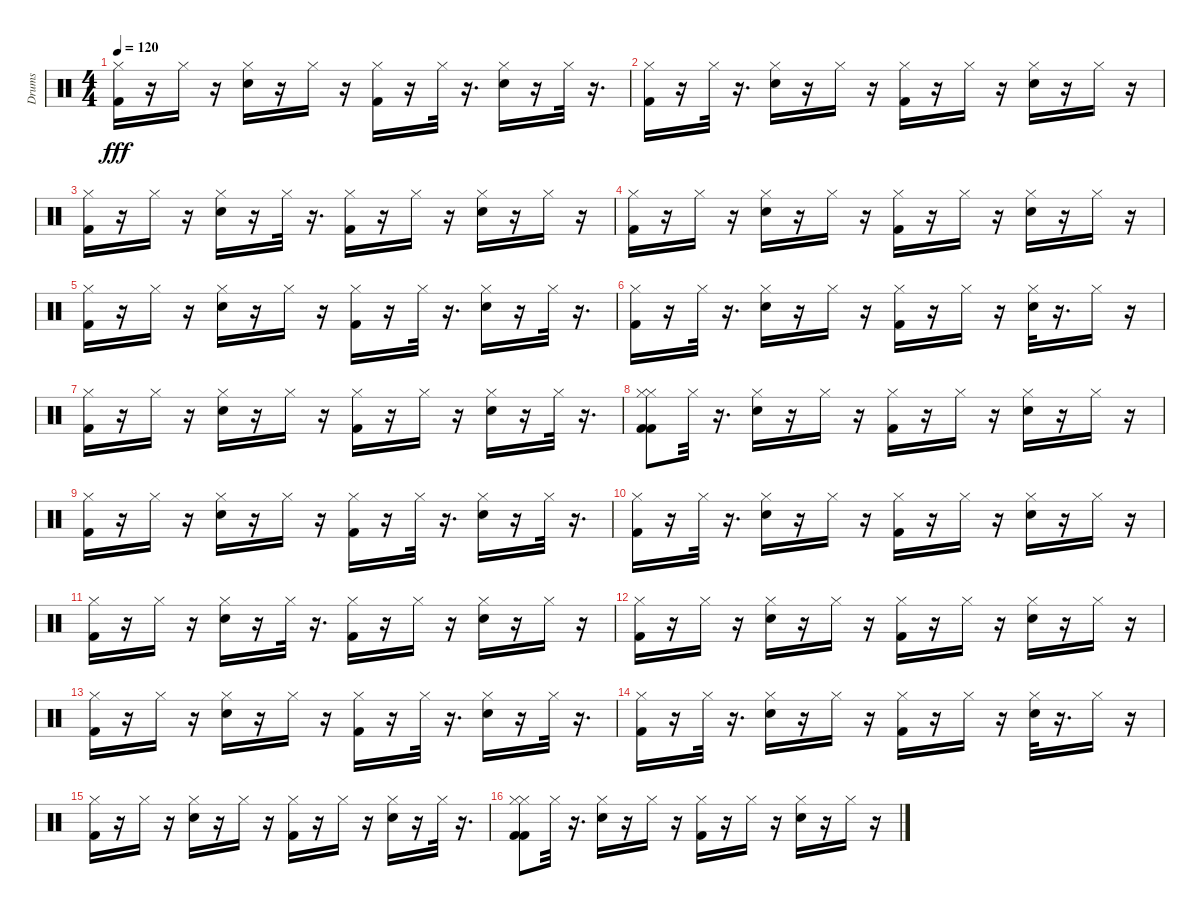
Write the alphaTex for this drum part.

\track ("Drums" "Drums") {instrument percussion}
\staff {score}
\articulation defaults
\ts (4 4)
\tempo 120
\clef neutral
\ks c
("Hi-Hat (closed)" "Kick (hit) 2").16{dy fff} r.16 "Hi-Hat (closed)".16 r.16 ("Snare (hit) 2" "Hi-Hat (closed)").16 r.16 "Hi-Hat (closed)".16 r.16 ("Hi-Hat (closed)" "Kick (hit) 2").16 r.16 "Hi-Hat (closed)".32 r.16{d} ("Snare (hit) 2" "Hi-Hat (closed)").16 r.16 "Hi-Hat (closed)".32 r.16{d} |
("Hi-Hat (closed)" "Kick (hit) 2").16 r.16 "Hi-Hat (closed)".32 r.16{d} ("Snare (hit) 2" "Hi-Hat (closed)").16 r.16 "Hi-Hat (closed)".16 r.16 ("Hi-Hat (closed)" "Kick (hit) 2").16 r.16 "Hi-Hat (closed)".16 r.16 ("Snare (hit) 2" "Hi-Hat (closed)").16 r.16 "Hi-Hat (closed)".16 r.16 |
("Hi-Hat (closed)" "Kick (hit) 2").16 r.16 "Hi-Hat (closed)".16 r.16 ("Snare (hit) 2" "Hi-Hat (closed)").16 r.16 "Hi-Hat (closed)".32 r.16{d} ("Hi-Hat (closed)" "Kick (hit) 2").16 r.16 "Hi-Hat (closed)".16 r.16 ("Snare (hit) 2" "Hi-Hat (closed)").16 r.16 "Hi-Hat (closed)".16 r.16 |
("Hi-Hat (closed)" "Kick (hit) 2").16 r.16 "Hi-Hat (closed)".16 r.16 ("Snare (hit) 2" "Hi-Hat (closed)").16 r.16 "Hi-Hat (closed)".16 r.16 ("Hi-Hat (closed)" "Kick (hit) 2").16 r.16 "Hi-Hat (closed)".16 r.16 ("Snare (hit) 2" "Hi-Hat (closed)").16 r.16 "Hi-Hat (closed)".16 r.16 |
("Hi-Hat (closed)" "Kick (hit) 2").16 r.16 "Hi-Hat (closed)".16 r.16 ("Snare (hit) 2" "Hi-Hat (closed)").16 r.16 "Hi-Hat (closed)".16 r.16 ("Hi-Hat (closed)" "Kick (hit) 2").16 r.16 "Hi-Hat (closed)".32 r.16{d} ("Snare (hit) 2" "Hi-Hat (closed)").16 r.16 "Hi-Hat (closed)".32 r.16{d} |
("Hi-Hat (closed)" "Kick (hit) 2").16 r.16 "Hi-Hat (closed)".32 r.16{d} ("Snare (hit) 2" "Hi-Hat (closed)").16 r.16 "Hi-Hat (closed)".16 r.16 ("Kick (hit) 2" "Hi-Hat (closed)").16 r.16 "Hi-Hat (closed)".16 r.16 ("Snare (hit) 2" "Hi-Hat (closed)").32 r.16{d} "Hi-Hat (closed)".16 r.16 |
("Hi-Hat (closed)" "Kick (hit) 2").16 r.16 "Hi-Hat (closed)".16 r.16 ("Snare (hit) 2" "Hi-Hat (closed)").16 r.16 "Hi-Hat (closed)".16 r.16 ("Hi-Hat (closed)" "Kick (hit) 2").16 r.16 "Hi-Hat (closed)".16 r.16 ("Snare (hit) 2" "Hi-Hat (closed)").16 r.16 "Hi-Hat (closed)".32 r.16{d} |
("Hi-Hat (closed)" "Kick (hit) 2" "Hi-Hat (closed)" "Kick (hit) 2").8 "Hi-Hat (closed)".32 r.16{d} ("Snare (hit) 2" "Hi-Hat (closed)").16 r.16 "Hi-Hat (closed)".16 r.16 ("Hi-Hat (closed)" "Kick (hit) 2").16 r.16 "Hi-Hat (closed)".16 r.16 ("Snare (hit) 2" "Hi-Hat (closed)").16 r.16 "Hi-Hat (closed)".16 r.16 |
("Hi-Hat (closed)" "Kick (hit) 2").16 r.16 "Hi-Hat (closed)".16 r.16 ("Snare (hit) 2" "Hi-Hat (closed)").16 r.16 "Hi-Hat (closed)".16 r.16 ("Hi-Hat (closed)" "Kick (hit) 2").16 r.16 "Hi-Hat (closed)".32{volume 9} r.16{d} ("Snare (hit) 2" "Hi-Hat (closed)").16 r.16 "Hi-Hat (closed)".32 r.16{d} |
("Hi-Hat (closed)" "Kick (hit) 2").16{volume 10} r.16 "Hi-Hat (closed)".32 r.16{d} ("Snare (hit) 2" "Hi-Hat (closed)").16{volume 10} r.16 "Hi-Hat (closed)".16{volume 10} r.16 ("Hi-Hat (closed)" "Kick (hit) 2").16{volume 9} r.16 "Hi-Hat (closed)".16{volume 9} r.16 ("Snare (hit) 2" "Hi-Hat (closed)").16{volume 8} r.16 "Hi-Hat (closed)".16{volume 8} r.16 |
("Hi-Hat (closed)" "Kick (hit) 2").16{volume 7} r.16 "Hi-Hat (closed)".16{volume 7} r.16 ("Snare (hit) 2" "Hi-Hat (closed)").16{volume 6} r.16 "Hi-Hat (closed)".32{volume 6} r.16{d} ("Hi-Hat (closed)" "Kick (hit) 2").16{volume 5} r.16 "Hi-Hat (closed)".16{volume 4} r.16 ("Snare (hit) 2" "Hi-Hat (closed)").16{volume 4} r.16 "Hi-Hat (closed)".16{volume 3} r.16 |
("Hi-Hat (closed)" "Kick (hit) 2").16{volume 3} r.16 "Hi-Hat (closed)".16{volume 2} r.16 ("Snare (hit) 2" "Hi-Hat (closed)").16{volume 2} r.16 "Hi-Hat (closed)".16{volume 2} r.16 ("Hi-Hat (closed)" "Kick (hit) 2").16{volume 2} r.16 "Hi-Hat (closed)".16{volume 1} r.16 ("Snare (hit) 2" "Hi-Hat (closed)").16{volume 1} r.16 "Hi-Hat (closed)".16{volume 0} r.16 |
("Hi-Hat (closed)" "Kick (hit) 2").16{volume 0} r.16 "Hi-Hat (closed)".16{volume 4} r.16 ("Snare (hit) 2" "Hi-Hat (closed)").16{volume 4} r.16 "Hi-Hat (closed)".16{volume 3} r.16 ("Hi-Hat (closed)" "Kick (hit) 2").16{volume 3} r.16 "Hi-Hat (closed)".32{volume 2} r.16{d} ("Snare (hit) 2" "Hi-Hat (closed)").16{volume 1} r.16 "Hi-Hat (closed)".32{volume 1} r.16{d} |
("Hi-Hat (closed)" "Kick (hit) 2").16 r.16 "Hi-Hat (closed)".32 r.16{d} ("Snare (hit) 2" "Hi-Hat (closed)").16 r.16 "Hi-Hat (closed)".16 r.16 ("Kick (hit) 2" "Hi-Hat (closed)").16 r.16 "Hi-Hat (closed)".16 r.16 ("Snare (hit) 2" "Hi-Hat (closed)").32 r.16{d} "Hi-Hat (closed)".16 r.16 |
("Hi-Hat (closed)" "Kick (hit) 2").16 r.16 "Hi-Hat (closed)".16 r.16 ("Snare (hit) 2" "Hi-Hat (closed)").16 r.16 "Hi-Hat (closed)".16 r.16 ("Hi-Hat (closed)" "Kick (hit) 2").16 r.16 "Hi-Hat (closed)".16 r.16 ("Snare (hit) 2" "Hi-Hat (closed)").16 r.16 "Hi-Hat (closed)".32 r.16{d} |
("Hi-Hat (closed)" "Kick (hit) 2" "Hi-Hat (closed)" "Kick (hit) 2").8 "Hi-Hat (closed)".32 r.16{d} ("Snare (hit) 2" "Hi-Hat (closed)").16 r.16 "Hi-Hat (closed)".16 r.16 ("Hi-Hat (closed)" "Kick (hit) 2").16 r.16 "Hi-Hat (closed)".16 r.16 ("Snare (hit) 2" "Hi-Hat (closed)").16 r.16 "Hi-Hat (closed)".16 r.16
